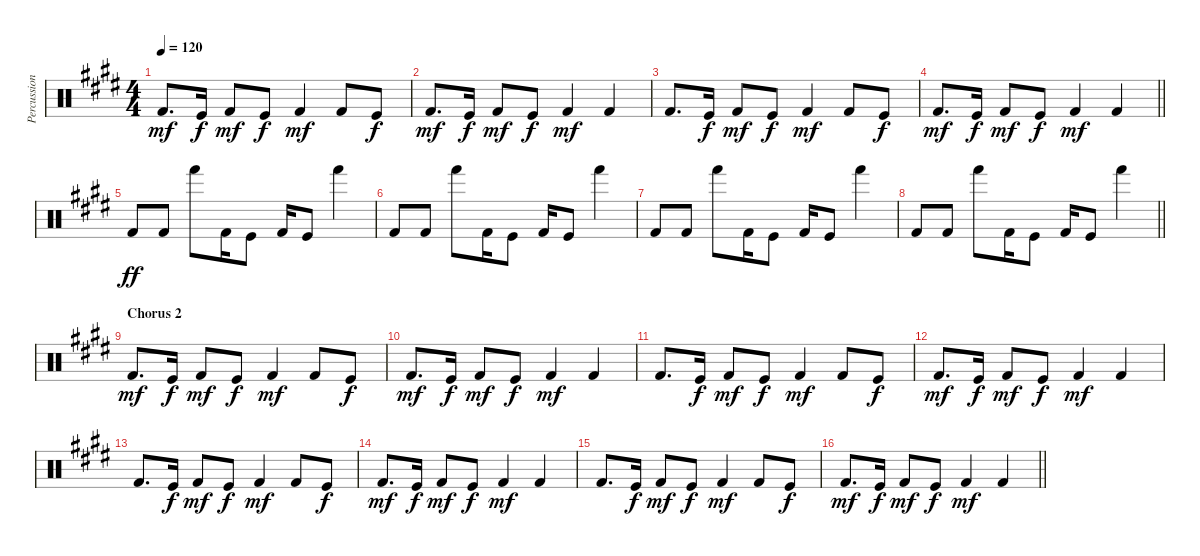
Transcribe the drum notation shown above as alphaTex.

\track ("Percussion" "Percussion") {instrument percussion}
\staff {score}
\articulation defaults
\ts (4 4)
\tempo 120
\clef neutral
\ks e "Kick (hit) 2".8{d dy mf} "Kick (hit)".16{dy f} "Kick (hit) 2".8{dy mf} "Kick (hit)".8{dy f} "Kick (hit) 2".4{dy mf} "Kick (hit) 2".8 "Kick (hit)".8{dy f}
|
"Kick (hit) 2".8{d dy mf} "Kick (hit)".16{dy f} "Kick (hit) 2".8{dy mf} "Kick (hit)".8{dy f} "Kick (hit) 2".4{dy mf} "Kick (hit) 2".4 |
"Kick (hit) 2".8{d} "Kick (hit)".16{dy f} "Kick (hit) 2".8{dy mf} "Kick (hit)".8{dy f} "Kick (hit) 2".4{dy mf} "Kick (hit) 2".8 "Kick (hit)".8{dy f} |
\barLineRight lightlight "Kick (hit) 2".8{d dy mf} "Kick (hit)".16{dy f} "Kick (hit) 2".8{dy mf} "Kick (hit)".8{dy f} "Kick (hit) 2".4{dy mf} "Kick (hit) 2".4
|
"Kick (hit) 2".8{dy ff} "Kick (hit) 2".8 "Hand (hit)".8 "Kick (hit) 2".16 "Kick (hit)".8 "Kick (hit) 2".16 "Kick (hit)".8 "Hand (hit)".4 |
"Kick (hit) 2".8 "Kick (hit) 2".8 "Hand (hit)".8 "Kick (hit) 2".16 "Kick (hit)".8 "Kick (hit) 2".16 "Kick (hit)".8 "Hand (hit)".4 |
"Kick (hit) 2".8 "Kick (hit) 2".8 "Hand (hit)".8 "Kick (hit) 2".16 "Kick (hit)".8 "Kick (hit) 2".16 "Kick (hit)".8 "Hand (hit)".4 |
\barLineRight lightlight "Kick (hit) 2".8 "Kick (hit) 2".8 "Hand (hit)".8 "Kick (hit) 2".16 "Kick (hit)".8 "Kick (hit) 2".16 "Kick (hit)".8 "Hand (hit)".4
|
\section ("" "Chorus 2")
"Kick (hit) 2".8{d dy mf} "Kick (hit)".16{dy f} "Kick (hit) 2".8{dy mf} "Kick (hit)".8{dy f} "Kick (hit) 2".4{dy mf} "Kick (hit) 2".8 "Kick (hit)".8{dy f} |
"Kick (hit) 2".8{d dy mf} "Kick (hit)".16{dy f} "Kick (hit) 2".8{dy mf} "Kick (hit)".8{dy f} "Kick (hit) 2".4{dy mf} "Kick (hit) 2".4 |
"Kick (hit) 2".8{d} "Kick (hit)".16{dy f} "Kick (hit) 2".8{dy mf} "Kick (hit)".8{dy f} "Kick (hit) 2".4{dy mf} "Kick (hit) 2".8 "Kick (hit)".8{dy f} |
"Kick (hit) 2".8{d dy mf} "Kick (hit)".16{dy f} "Kick (hit) 2".8{dy mf} "Kick (hit)".8{dy f} "Kick (hit) 2".4{dy mf} "Kick (hit) 2".4 |
"Kick (hit) 2".8{d} "Kick (hit)".16{dy f} "Kick (hit) 2".8{dy mf} "Kick (hit)".8{dy f} "Kick (hit) 2".4{dy mf} "Kick (hit) 2".8 "Kick (hit)".8{dy f} |
"Kick (hit) 2".8{d dy mf} "Kick (hit)".16{dy f} "Kick (hit) 2".8{dy mf} "Kick (hit)".8{dy f} "Kick (hit) 2".4{dy mf} "Kick (hit) 2".4 |
"Kick (hit) 2".8{d} "Kick (hit)".16{dy f} "Kick (hit) 2".8{dy mf} "Kick (hit)".8{dy f} "Kick (hit) 2".4{dy mf} "Kick (hit) 2".8 "Kick (hit)".8{dy f} |
\barLineRight lightlight "Kick (hit) 2".8{d dy mf} "Kick (hit)".16{dy f} "Kick (hit) 2".8{dy mf} "Kick (hit)".8{dy f} "Kick (hit) 2".4{dy mf} "Kick (hit) 2".4
